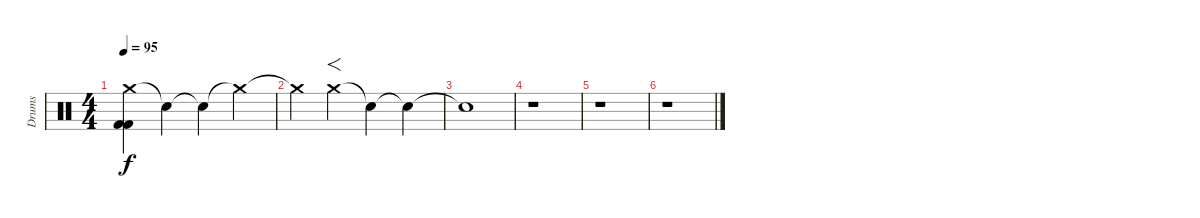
\track ("Drums" "Drums") {instrument percussion}
\staff {score}
\articulation defaults
\ts (4 4)
\tempo 95
\clef neutral
\ks c
("Crash medium (hit)" "Kick (hit) 2" "Kick (hit) 2").4{dy f} "Snare (hit)"{t}.4 "Snare (hit)"{t}.4 "Crash medium (hit)"{t}.4 |
"Crash medium (hit)"{t}.4 "Crash medium (hit)".4{f} "Snare (hit)"{t}.4 "Snare (hit)"{t}.4 |
"Snare (hit)"{t}.1 |
r.1 |
r.1 |
r.1
